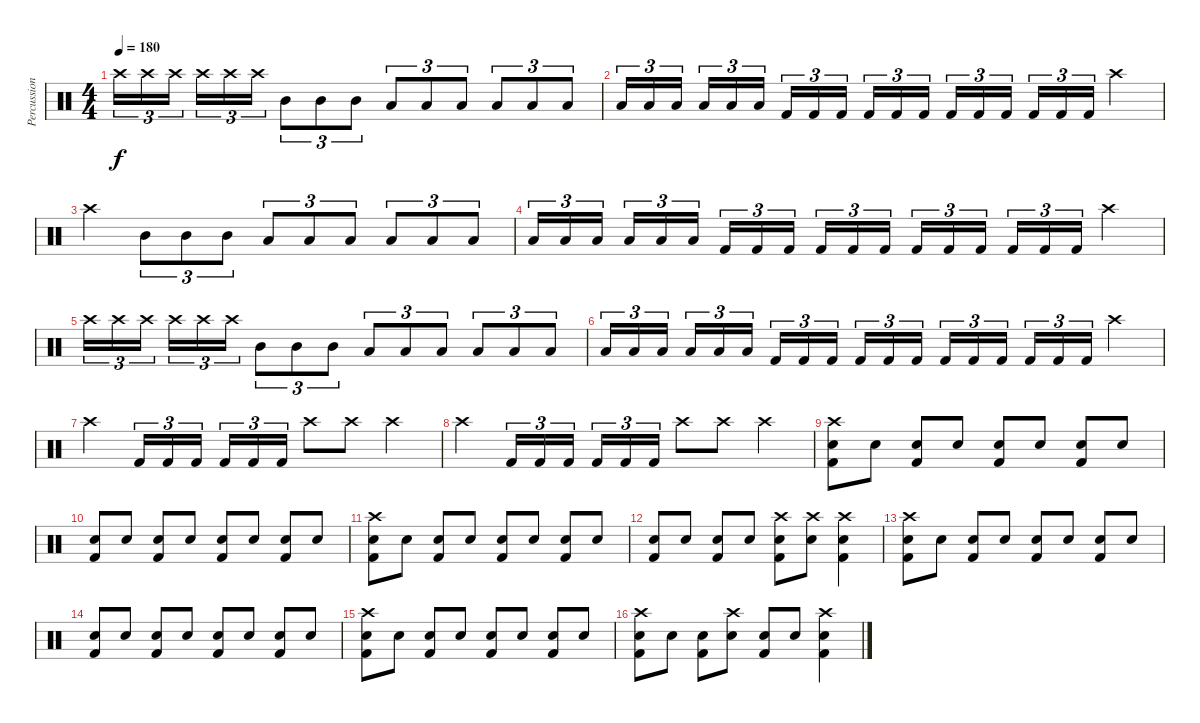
\track ("Percussion" "Percussion") {instrument percussion}
\staff {score}
\articulation defaults
\ts (4 4)
\tempo 180
\clef neutral
\ks c "Crash high (hit)".16{tu (3 2) dy f} "Crash high (hit)".16{tu (3 2)} "Crash high (hit)".16{tu (3 2)} "Crash high (hit)".16{tu (3 2)} "Crash high (hit)".16{tu (3 2)} "Crash high (hit)".16{tu (3 2)} "Mid Tom (hit)".8{tu (3 2)} "Mid Tom (hit)".8{tu (3 2)} "Mid Tom (hit)".8{tu (3 2)} "Low Tom (hit)".8{tu (3 2)} "Low Tom (hit)".8{tu (3 2)} "Low Tom (hit)".8{tu (3 2)} "Low Tom (hit)".8{tu (3 2)} "Low Tom (hit)".8{tu (3 2)} "Low Tom (hit)".8{tu (3 2)}
|
"Low Tom (hit)".16{tu (3 2)} "Low Tom (hit)".16{tu (3 2)} "Low Tom (hit)".16{tu (3 2)} "Low Tom (hit)".16{tu (3 2)} "Low Tom (hit)".16{tu (3 2)} "Low Tom (hit)".16{tu (3 2)} "Kick (hit) 2".16{tu (3 2)} "Kick (hit) 2".16{tu (3 2)} "Kick (hit) 2".16{tu (3 2)} "Kick (hit) 2".16{tu (3 2)} "Kick (hit) 2".16{tu (3 2)} "Kick (hit) 2".16{tu (3 2)} "Kick (hit) 2".16{tu (3 2)} "Kick (hit) 2".16{tu (3 2)} "Kick (hit) 2".16{tu (3 2)} "Kick (hit) 2".16{tu (3 2)} "Kick (hit) 2".16{tu (3 2)} "Kick (hit) 2".16{tu (3 2)} "Crash high (hit)".4 |
"Crash high (hit)".4 "Mid Tom (hit)".8{tu (3 2)} "Mid Tom (hit)".8{tu (3 2)} "Mid Tom (hit)".8{tu (3 2)} "Low Tom (hit)".8{tu (3 2)} "Low Tom (hit)".8{tu (3 2)} "Low Tom (hit)".8{tu (3 2)} "Low Tom (hit)".8{tu (3 2)} "Low Tom (hit)".8{tu (3 2)} "Low Tom (hit)".8{tu (3 2)} |
"Low Tom (hit)".16{tu (3 2)} "Low Tom (hit)".16{tu (3 2)} "Low Tom (hit)".16{tu (3 2)} "Low Tom (hit)".16{tu (3 2)} "Low Tom (hit)".16{tu (3 2)} "Low Tom (hit)".16{tu (3 2)} "Kick (hit) 2".16{tu (3 2)} "Kick (hit) 2".16{tu (3 2)} "Kick (hit) 2".16{tu (3 2)} "Kick (hit) 2".16{tu (3 2)} "Kick (hit) 2".16{tu (3 2)} "Kick (hit) 2".16{tu (3 2)} "Kick (hit) 2".16{tu (3 2)} "Kick (hit) 2".16{tu (3 2)} "Kick (hit) 2".16{tu (3 2)} "Kick (hit) 2".16{tu (3 2)} "Kick (hit) 2".16{tu (3 2)} "Kick (hit) 2".16{tu (3 2)} "Crash high (hit)".4 |
"Crash high (hit)".16{tu (3 2)} "Crash high (hit)".16{tu (3 2)} "Crash high (hit)".16{tu (3 2)} "Crash high (hit)".16{tu (3 2)} "Crash high (hit)".16{tu (3 2)} "Crash high (hit)".16{tu (3 2)} "Mid Tom (hit)".8{tu (3 2)} "Mid Tom (hit)".8{tu (3 2)} "Mid Tom (hit)".8{tu (3 2)} "Low Tom (hit)".8{tu (3 2)} "Low Tom (hit)".8{tu (3 2)} "Low Tom (hit)".8{tu (3 2)} "Low Tom (hit)".8{tu (3 2)} "Low Tom (hit)".8{tu (3 2)} "Low Tom (hit)".8{tu (3 2)} |
"Low Tom (hit)".16{tu (3 2)} "Low Tom (hit)".16{tu (3 2)} "Low Tom (hit)".16{tu (3 2)} "Low Tom (hit)".16{tu (3 2)} "Low Tom (hit)".16{tu (3 2)} "Low Tom (hit)".16{tu (3 2)} "Kick (hit) 2".16{tu (3 2)} "Kick (hit) 2".16{tu (3 2)} "Kick (hit) 2".16{tu (3 2)} "Kick (hit) 2".16{tu (3 2)} "Kick (hit) 2".16{tu (3 2)} "Kick (hit) 2".16{tu (3 2)} "Kick (hit) 2".16{tu (3 2)} "Kick (hit) 2".16{tu (3 2)} "Kick (hit) 2".16{tu (3 2)} "Kick (hit) 2".16{tu (3 2)} "Kick (hit) 2".16{tu (3 2)} "Kick (hit) 2".16{tu (3 2)} "Crash high (hit)".4 |
"Crash high (hit)".4 "Kick (hit) 2".16{tu (3 2)} "Kick (hit) 2".16{tu (3 2)} "Kick (hit) 2".16{tu (3 2)} "Kick (hit) 2".16{tu (3 2)} "Kick (hit) 2".16{tu (3 2)} "Kick (hit) 2".16{tu (3 2)} "Crash high (hit)".8 "Crash high (hit)".8 "Crash high (hit)".4 |
"Crash high (hit)".4 "Kick (hit) 2".16{tu (3 2)} "Kick (hit) 2".16{tu (3 2)} "Kick (hit) 2".16{tu (3 2)} "Kick (hit) 2".16{tu (3 2)} "Kick (hit) 2".16{tu (3 2)} "Kick (hit) 2".16{tu (3 2)} "Crash high (hit)".8 "Crash high (hit)".8 "Crash high (hit)".4 |
("Crash high (hit)" "Snare (hit) 2" "Kick (hit) 2").8 "Snare (hit) 2".8 ("Snare (hit) 2" "Kick (hit) 2").8 "Snare (hit) 2".8 ("Snare (hit) 2" "Kick (hit) 2").8 "Snare (hit) 2".8 ("Snare (hit) 2" "Kick (hit) 2").8 "Snare (hit) 2".8 |
("Snare (hit) 2" "Kick (hit) 2").8 "Snare (hit) 2".8 ("Snare (hit) 2" "Kick (hit) 2").8 "Snare (hit) 2".8 ("Snare (hit) 2" "Kick (hit) 2").8 "Snare (hit) 2".8 ("Snare (hit) 2" "Kick (hit) 2").8 "Snare (hit) 2".8 |
("Crash high (hit)" "Snare (hit) 2" "Kick (hit) 2").8 "Snare (hit) 2".8 ("Snare (hit) 2" "Kick (hit) 2").8 "Snare (hit) 2".8 ("Snare (hit) 2" "Kick (hit) 2").8 "Snare (hit) 2".8 ("Snare (hit) 2" "Kick (hit) 2").8 "Snare (hit) 2".8 |
("Snare (hit) 2" "Kick (hit) 2").8 "Snare (hit) 2".8 ("Snare (hit) 2" "Kick (hit) 2").8 "Snare (hit) 2".8 ("Crash high (hit)" "Snare (hit) 2" "Kick (hit) 2").8 ("Crash high (hit)" "Snare (hit) 2").8 ("Crash high (hit)" "Snare (hit) 2" "Kick (hit) 2").4 |
("Crash high (hit)" "Snare (hit) 2" "Kick (hit) 2").8 "Snare (hit) 2".8 ("Snare (hit) 2" "Kick (hit) 2").8 "Snare (hit) 2".8 ("Snare (hit) 2" "Kick (hit) 2").8 "Snare (hit) 2".8 ("Snare (hit) 2" "Kick (hit) 2").8 "Snare (hit) 2".8 |
("Snare (hit) 2" "Kick (hit) 2").8 "Snare (hit) 2".8 ("Snare (hit) 2" "Kick (hit) 2").8 "Snare (hit) 2".8 ("Snare (hit) 2" "Kick (hit) 2").8 "Snare (hit) 2".8 ("Snare (hit) 2" "Kick (hit) 2").8 "Snare (hit) 2".8 |
("Crash high (hit)" "Snare (hit) 2" "Kick (hit) 2").8 "Snare (hit) 2".8 ("Snare (hit) 2" "Kick (hit) 2").8 "Snare (hit) 2".8 ("Snare (hit) 2" "Kick (hit) 2").8 "Snare (hit) 2".8 ("Snare (hit) 2" "Kick (hit) 2").8 "Snare (hit) 2".8 |
("Crash high (hit)" "Snare (hit) 2" "Kick (hit) 2").8 "Snare (hit) 2".8 ("Snare (hit) 2" "Kick (hit) 2").8 ("Crash high (hit)" "Snare (hit) 2").8 ("Snare (hit) 2" "Kick (hit) 2").8 "Snare (hit) 2".8 ("Crash high (hit)" "Snare (hit) 2" "Kick (hit) 2").4
